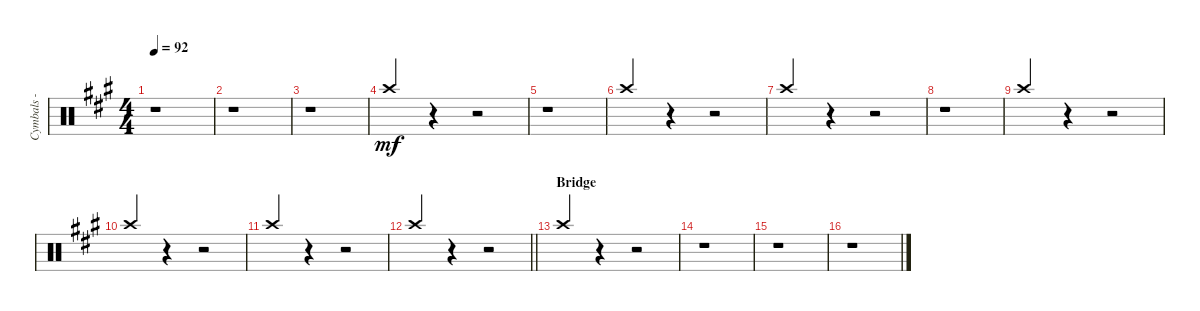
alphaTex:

\track ("Cymbals - crash" "Cymbals - ") {instrument percussion}
\staff {score}
\articulation defaults
\ts (4 4)
\tempo 92
\clef neutral
\ks f#minor
r.1{dy mf} |
r.1 |
r.1 |
"Crash high (hit)".4{beam Up} r.4 r.2 |
r.1 |
"Crash high (hit)".4{beam Up} r.4 r.2 |
"Crash high (hit)".4{beam Up} r.4 r.2 |
r.1 |
"Crash high (hit)".4{beam Up} r.4 r.2 |
"Crash high (hit)".4{beam Up} r.4 r.2 |
"Crash high (hit)".4{beam Up} r.4 r.2 |
\barLineRight lightlight "Crash high (hit)".4{beam Up}
r.4 r.2 |
\section ("" "Bridge")
"Crash high (hit)".4{beam Up} r.4 r.2 |
r.1 |
r.1 |
r.1
